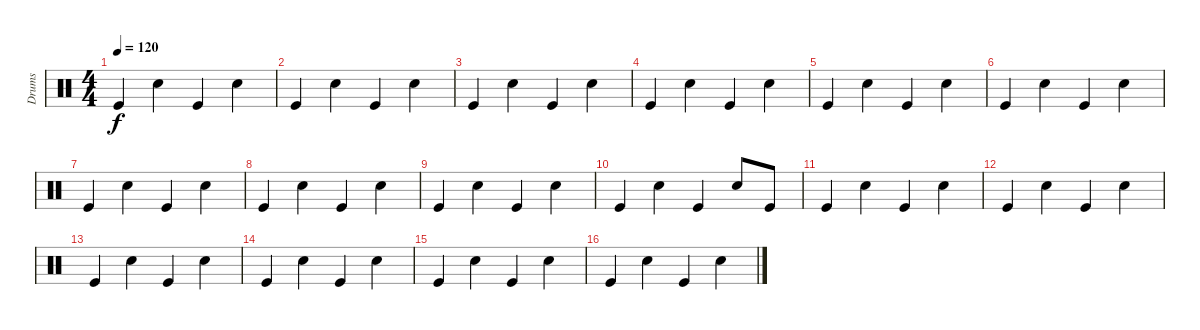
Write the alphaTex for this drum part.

\track ("Drums" "Drums") {instrument percussion}
\staff {score}
\articulation defaults
\ts (4 4)
\tempo 120
\clef neutral
\ks c "Kick (hit)".4{dy f} "Snare (hit) 2".4 "Kick (hit)".4 "Snare (hit) 2".4
|
"Kick (hit)".4 "Snare (hit) 2".4 "Kick (hit)".4 "Snare (hit) 2".4 |
"Kick (hit)".4 "Snare (hit) 2".4 "Kick (hit)".4 "Snare (hit) 2".4 |
"Kick (hit)".4 "Snare (hit) 2".4 "Kick (hit)".4 "Snare (hit) 2".4 |
"Kick (hit)".4 "Snare (hit) 2".4 "Kick (hit)".4 "Snare (hit) 2".4 |
"Kick (hit)".4 "Snare (hit) 2".4 "Kick (hit)".4 "Snare (hit) 2".4 |
"Kick (hit)".4 "Snare (hit) 2".4 "Kick (hit)".4 "Snare (hit) 2".4 |
"Kick (hit)".4 "Snare (hit) 2".4 "Kick (hit)".4 "Snare (hit) 2".4 |
"Kick (hit)".4 "Snare (hit) 2".4 "Kick (hit)".4 "Snare (hit) 2".4 |
"Kick (hit)".4 "Snare (hit) 2".4 "Kick (hit)".4 "Snare (hit) 2".8 "Kick (hit)".8 |
"Kick (hit)".4 "Snare (hit) 2".4 "Kick (hit)".4 "Snare (hit) 2".4 |
"Kick (hit)".4 "Snare (hit) 2".4 "Kick (hit)".4 "Snare (hit) 2".4 |
"Kick (hit)".4 "Snare (hit) 2".4 "Kick (hit)".4 "Snare (hit) 2".4 |
"Kick (hit)".4 "Snare (hit) 2".4 "Kick (hit)".4 "Snare (hit) 2".4 |
"Kick (hit)".4 "Snare (hit) 2".4 "Kick (hit)".4 "Snare (hit) 2".4 |
"Kick (hit)".4 "Snare (hit) 2".4 "Kick (hit)".4 "Snare (hit) 2".4
